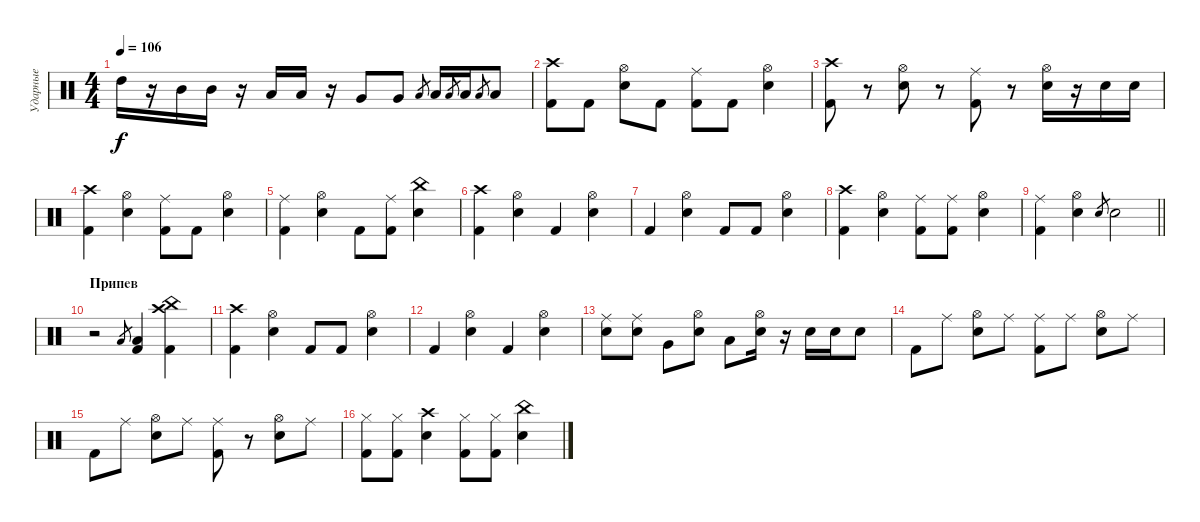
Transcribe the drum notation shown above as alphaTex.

\track ("Ударные" "Ударные") {instrument percussion}
\staff {score}
\articulation defaults
\ts (4 4)
\tempo 106
\clef neutral
\ks c "High Tom (hit)".16{dy f}
r.16 "Mid Tom (hit)".16 "Mid Tom (hit)".16 r.16 "Low Tom (hit)".16 "Low Tom (hit)".16 r.16 "Very Low Tom (hit)".8 "Very Low Tom (hit)".8 "Low Floor Tom (hit)".8{gr} "Low Floor Tom (hit)".16 "Low Floor Tom (hit)".8{gr} "Low Floor Tom (hit)".16 "Low Floor Tom (hit)".8{gr} "Low Floor Tom (hit)".8 |
("Kick (hit) 2" "Crash high (hit)").8 "Kick (hit) 2".8 ("Electric Snare (hit)" "Hi-Hat (open)").8 "Kick (hit) 2".8 ("Kick (hit) 2" "Ride (middle)").8 "Kick (hit) 2".8 ("Electric Snare (hit)" "Hi-Hat (open)").4 |
("Kick (hit) 2" "Crash high (hit)").8 r.8 ("Electric Snare (hit)" "Hi-Hat (open)").8 r.8 ("Kick (hit) 2" "Ride (middle)").8 r.8 ("Electric Snare (hit)" "Hi-Hat (open)").16 r.16 "Electric Snare (hit)".16 "Electric Snare (hit)".16 |
("Kick (hit) 2" "Crash high (hit)").4 ("Electric Snare (hit)" "Hi-Hat (open)").4 ("Kick (hit) 2" "Ride (middle)").8 "Kick (hit) 2".8 ("Electric Snare (hit)" "Hi-Hat (open)").4 |
("Kick (hit) 2" "Ride (middle)").4 ("Electric Snare (hit)" "Hi-Hat (open)").4 "Kick (hit) 2".8 ("Kick (hit) 2" "Ride (middle)").8 ("Electric Snare (hit)" "China (hit)").4 |
("Crash high (hit)" "Kick (hit) 2").4 ("Electric Snare (hit)" "Hi-Hat (open)").4 "Kick (hit) 2".4 ("Electric Snare (hit)" "Hi-Hat (open)").4 |
"Kick (hit) 2".4 ("Electric Snare (hit)" "Hi-Hat (open)").4 "Kick (hit) 2".8 "Kick (hit) 2".8 ("Electric Snare (hit)" "Hi-Hat (open)").4 |
("Crash high (hit)" "Kick (hit) 2").4 ("Electric Snare (hit)" "Hi-Hat (open)").4 ("Kick (hit) 2" "Ride (middle)").8 ("Kick (hit) 2" "Ride (middle)").8 ("Electric Snare (hit)" "Hi-Hat (open)").4 |
\barLineRight lightlight
("Ride (middle)" "Kick (hit) 2").4 ("Electric Snare (hit)" "Hi-Hat (open)").4 "Electric Snare (hit)".8{gr} "Electric Snare (hit)".2 |
\section ("" "Припев")
r.2 "Low Tom (hit)".8{gr} ("Kick (hit) 2" "Low Tom (hit)").4 ("Kick (hit) 2" "Crash high (hit)" "China (hit)").4 |
("Crash high (hit)" "Kick (hit) 2").4 ("Electric Snare (hit)" "Hi-Hat (open)").4 "Kick (hit) 2".8 "Kick (hit) 2".8 ("Electric Snare (hit)" "Hi-Hat (open)").4 |
"Kick (hit) 2".4 ("Electric Snare (hit)" "Hi-Hat (open)").4 "Kick (hit) 2".4 ("Electric Snare (hit)" "Hi-Hat (open)").4 |
("Electric Snare (hit)" "Ride (middle)").8 ("Ride (middle)" "Electric Snare (hit)").8 "Very Low Tom (hit)".8 ("Electric Snare (hit)" "Hi-Hat (open)").8 "Low Floor Tom (hit)".8 ("Electric Snare (hit)" "Hi-Hat (open)").16 r.16 "Electric Snare (hit)".16 "Electric Snare (hit)".16 "Electric Snare (hit)".8 |
"Kick (hit) 2".8 "Ride (middle)".8 ("Electric Snare (hit)" "Hi-Hat (open)").8 "Ride (middle)".8 ("Ride (middle)" "Kick (hit) 2").8 "Ride (middle)".8 ("Electric Snare (hit)" "Hi-Hat (open)").8 "Ride (middle)".8 |
"Kick (hit) 2".8 "Ride (middle)".8 ("Electric Snare (hit)" "Hi-Hat (open)").8 "Ride (middle)".8 ("Ride (middle)" "Kick (hit) 2").8 r.8 ("Electric Snare (hit)" "Hi-Hat (open)").8 "Ride (middle)".8 |
("Kick (hit) 2" "Hi-Hat (closed)").8 ("Kick (hit) 2" "Hi-Hat (closed)").8 ("Electric Snare (hit)" "Crash high (hit)").4 ("Kick (hit) 2" "Hi-Hat (closed)").8 ("Kick (hit) 2" "Hi-Hat (closed)").8 ("Electric Snare (hit)" "China (hit)").4
